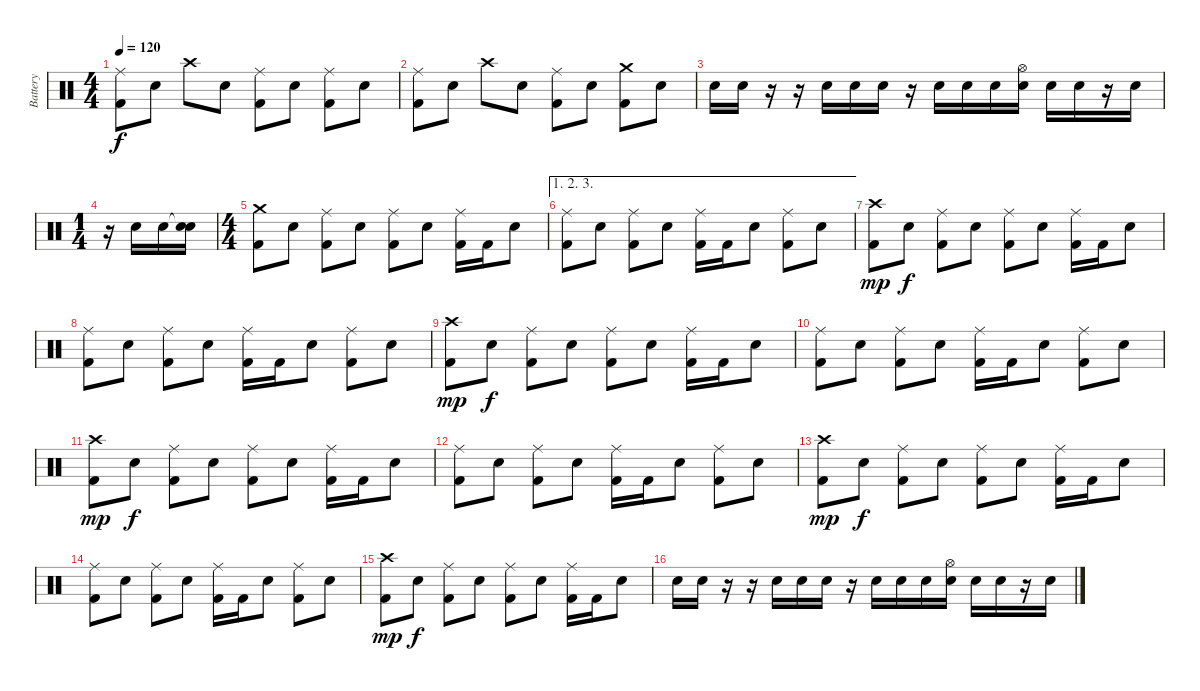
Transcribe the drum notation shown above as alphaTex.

\track ("Battery" "Battery") {instrument percussion}
\staff {score}
\articulation defaults
\ts (4 4)
\tempo 120
\clef neutral
\ks c
("Ride (middle)" "Kick (hit) 2").8{dy f} "Electric Snare (hit)".8 "Crash high (hit)".8 "Electric Snare (hit)".8 ("Ride (middle)" "Kick (hit) 2").8 "Electric Snare (hit)".8 ("Ride (middle)" "Kick (hit) 2").8 "Electric Snare (hit)".8 |
("Ride (middle)" "Kick (hit) 2").8 "Electric Snare (hit)".8 "Crash high (hit)".8 "Electric Snare (hit)".8 ("Ride (middle)" "Kick (hit) 2").8 "Electric Snare (hit)".8 ("Crash medium (hit)" "Kick (hit) 2").8 "Electric Snare (hit)".8 |
"Electric Snare (hit)".16 "Electric Snare (hit)".16 r.16 r.16 "Electric Snare (hit)".16 "Electric Snare (hit)".16 "Electric Snare (hit)".16 r.16 "Electric Snare (hit)".16 "Electric Snare (hit)".16 "Electric Snare (hit)".16 ("Hi-Hat (open)" "Electric Snare (hit)").16 "Electric Snare (hit)".16 "Electric Snare (hit)".16 r.16 "Electric Snare (hit)".16 |
\ts (1 4)
r.16 "Electric Snare (hit)".16 "Electric Snare (hit)".16 ("Snare (hit)"{t} "Electric Snare (hit)").16 |
\ts (4 4)
("Crash medium (hit)" "Kick (hit) 2").8 "Electric Snare (hit)".8 ("Ride (middle)" "Kick (hit) 2").8 "Electric Snare (hit)".8 ("Ride (middle)" "Kick (hit) 2").8 "Electric Snare (hit)".8 ("Ride (middle)" "Kick (hit) 2").16 "Kick (hit) 2".16 "Electric Snare (hit)".8 |
\ae (1 2 3)
("Ride (middle)" "Kick (hit) 2").8 "Electric Snare (hit)".8 ("Ride (middle)" "Kick (hit) 2").8 "Electric Snare (hit)".8 ("Ride (middle)" "Kick (hit) 2").16 "Kick (hit) 2".16 "Electric Snare (hit)".8 ("Ride (middle)" "Kick (hit) 2").8 "Electric Snare (hit)".8 |
("Crash high (hit)" "Kick (hit) 2").8{dy mp} "Electric Snare (hit)".8{dy f} ("Ride (middle)" "Kick (hit) 2").8 "Electric Snare (hit)".8 ("Ride (middle)" "Kick (hit) 2").8 "Electric Snare (hit)".8 ("Ride (middle)" "Kick (hit) 2").16 "Kick (hit) 2".16 "Electric Snare (hit)".8 |
("Ride (middle)" "Kick (hit) 2").8 "Electric Snare (hit)".8 ("Ride (middle)" "Kick (hit) 2").8 "Electric Snare (hit)".8 ("Ride (middle)" "Kick (hit) 2").16 "Kick (hit) 2".16 "Electric Snare (hit)".8 ("Ride (middle)" "Kick (hit) 2").8 "Electric Snare (hit)".8 |
("Crash high (hit)" "Kick (hit) 2").8{dy mp} "Electric Snare (hit)".8{dy f} ("Ride (middle)" "Kick (hit) 2").8 "Electric Snare (hit)".8 ("Ride (middle)" "Kick (hit) 2").8 "Electric Snare (hit)".8 ("Ride (middle)" "Kick (hit) 2").16 "Kick (hit) 2".16 "Electric Snare (hit)".8 |
("Ride (middle)" "Kick (hit) 2").8 "Electric Snare (hit)".8 ("Ride (middle)" "Kick (hit) 2").8 "Electric Snare (hit)".8 ("Ride (middle)" "Kick (hit) 2").16 "Kick (hit) 2".16 "Electric Snare (hit)".8 ("Ride (middle)" "Kick (hit) 2").8 "Electric Snare (hit)".8 |
("Crash high (hit)" "Kick (hit) 2").8{dy mp} "Electric Snare (hit)".8{dy f} ("Ride (middle)" "Kick (hit) 2").8 "Electric Snare (hit)".8 ("Ride (middle)" "Kick (hit) 2").8 "Electric Snare (hit)".8 ("Ride (middle)" "Kick (hit) 2").16 "Kick (hit) 2".16 "Electric Snare (hit)".8 |
("Ride (middle)" "Kick (hit) 2").8 "Electric Snare (hit)".8 ("Ride (middle)" "Kick (hit) 2").8 "Electric Snare (hit)".8 ("Ride (middle)" "Kick (hit) 2").16 "Kick (hit) 2".16 "Electric Snare (hit)".8 ("Ride (middle)" "Kick (hit) 2").8 "Electric Snare (hit)".8 |
("Crash high (hit)" "Kick (hit) 2").8{dy mp} "Electric Snare (hit)".8{dy f} ("Ride (middle)" "Kick (hit) 2").8 "Electric Snare (hit)".8 ("Ride (middle)" "Kick (hit) 2").8 "Electric Snare (hit)".8 ("Ride (middle)" "Kick (hit) 2").16 "Kick (hit) 2".16 "Electric Snare (hit)".8 |
("Ride (middle)" "Kick (hit) 2").8 "Electric Snare (hit)".8 ("Ride (middle)" "Kick (hit) 2").8 "Electric Snare (hit)".8 ("Ride (middle)" "Kick (hit) 2").16 "Kick (hit) 2".16 "Electric Snare (hit)".8 ("Ride (middle)" "Kick (hit) 2").8 "Electric Snare (hit)".8 |
("Crash high (hit)" "Kick (hit) 2").8{dy mp} "Electric Snare (hit)".8{dy f} ("Ride (middle)" "Kick (hit) 2").8 "Electric Snare (hit)".8 ("Ride (middle)" "Kick (hit) 2").8 "Electric Snare (hit)".8 ("Ride (middle)" "Kick (hit) 2").16 "Kick (hit) 2".16 "Electric Snare (hit)".8 |
"Electric Snare (hit)".16 "Electric Snare (hit)".16 r.16 r.16 "Electric Snare (hit)".16 "Electric Snare (hit)".16 "Electric Snare (hit)".16 r.16 "Electric Snare (hit)".16 "Electric Snare (hit)".16 "Electric Snare (hit)".16 ("Hi-Hat (open)" "Electric Snare (hit)").16 "Electric Snare (hit)".16 "Electric Snare (hit)".16 r.16 "Electric Snare (hit)".16
